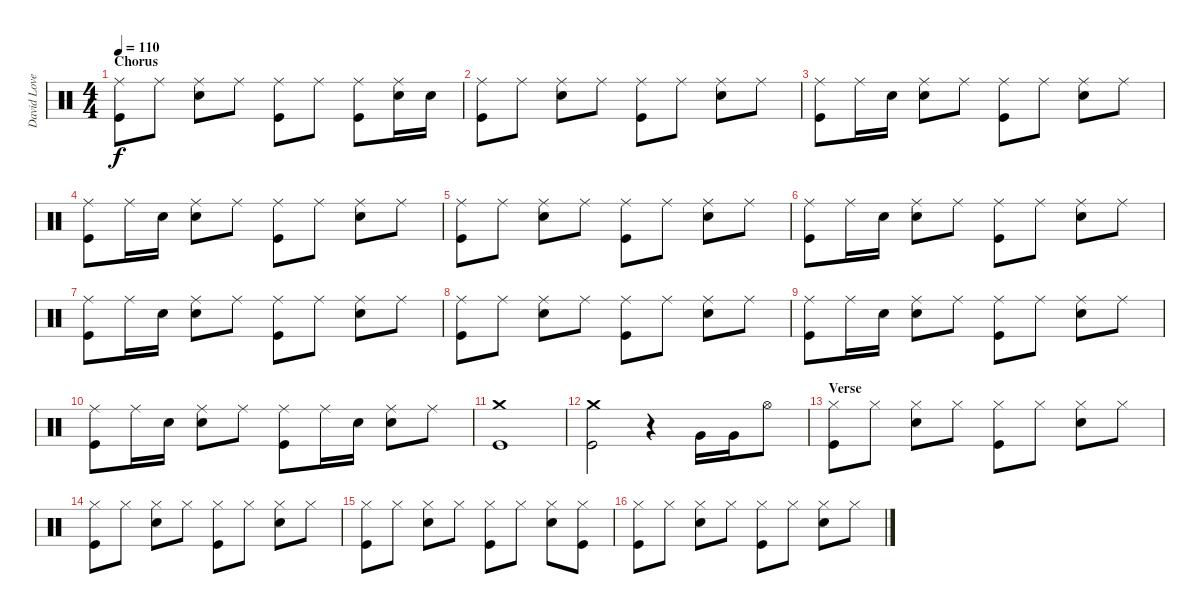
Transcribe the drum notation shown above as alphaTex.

\track ("David Lovering" "David Love") {instrument percussion}
\staff {score}
\articulation defaults
\ts (4 4)
\section ("" "Chorus")
\tempo 110
\clef neutral
\ks c
("Ride (middle)" "Kick (hit)").8{dy f} "Ride (middle)".8 ("Ride (middle)" "Snare (hit) 2").8 "Ride (middle)".8 ("Ride (middle)" "Kick (hit)").8 "Ride (middle)".8 ("Ride (middle)" "Kick (hit)").8 ("Ride (middle)" "Snare (hit) 2").16 "Snare (hit) 2".16 |
("Ride (middle)" "Kick (hit)").8 "Ride (middle)".8 ("Ride (middle)" "Snare (hit) 2").8 "Ride (middle)".8 ("Ride (middle)" "Kick (hit)").8 "Ride (middle)".8 ("Ride (middle)" "Snare (hit) 2").8 "Ride (middle)".8 |
("Ride (middle)" "Kick (hit)").8 "Ride (middle)".16 "Snare (hit) 2".16 ("Ride (middle)" "Snare (hit) 2").8 "Ride (middle)".8 ("Ride (middle)" "Kick (hit)").8 "Ride (middle)".8 ("Ride (middle)" "Snare (hit) 2").8 "Ride (middle)".8 |
("Ride (middle)" "Kick (hit)").8 "Ride (middle)".16 "Snare (hit) 2".16 ("Ride (middle)" "Snare (hit) 2").8 "Ride (middle)".8 ("Ride (middle)" "Kick (hit)").8 "Ride (middle)".8 ("Ride (middle)" "Snare (hit) 2").8 "Ride (middle)".8 |
("Ride (middle)" "Kick (hit)").8 "Ride (middle)".8 ("Ride (middle)" "Snare (hit) 2").8 "Ride (middle)".8 ("Ride (middle)" "Kick (hit)").8 "Ride (middle)".8 ("Ride (middle)" "Snare (hit) 2").8 "Ride (middle)".8 |
("Ride (middle)" "Kick (hit)").8 "Ride (middle)".16 "Snare (hit) 2".16 ("Ride (middle)" "Snare (hit) 2").8 "Ride (middle)".8 ("Ride (middle)" "Kick (hit)").8 "Ride (middle)".8 ("Ride (middle)" "Snare (hit) 2").8 "Ride (middle)".8 |
("Ride (middle)" "Kick (hit)").8 "Ride (middle)".16 "Snare (hit) 2".16 ("Ride (middle)" "Snare (hit) 2").8 "Ride (middle)".8 ("Ride (middle)" "Kick (hit)").8 "Ride (middle)".8 ("Ride (middle)" "Snare (hit) 2").8 "Ride (middle)".8 |
("Ride (middle)" "Kick (hit)").8 "Ride (middle)".8 ("Ride (middle)" "Snare (hit) 2").8 "Ride (middle)".8 ("Ride (middle)" "Kick (hit)").8 "Ride (middle)".8 ("Ride (middle)" "Snare (hit) 2").8 "Ride (middle)".8 |
("Ride (middle)" "Kick (hit)").8 "Ride (middle)".16 "Snare (hit) 2".16 ("Ride (middle)" "Snare (hit) 2").8 "Ride (middle)".8 ("Ride (middle)" "Kick (hit)").8 "Ride (middle)".8 ("Ride (middle)" "Snare (hit) 2").8 "Ride (middle)".8 |
("Ride (middle)" "Kick (hit)").8 "Ride (middle)".16 "Snare (hit) 2".16 ("Ride (middle)" "Snare (hit) 2").8 "Ride (middle)".8 ("Ride (middle)" "Kick (hit)").8 "Ride (middle)".16 "Snare (hit) 2".16 ("Ride (middle)" "Snare (hit) 2").8 "Ride (middle)".8 |
("Crash medium (hit)" "Kick (hit)").1 |
("Crash medium (hit)" "Kick (hit)").2 r.4 "Very Low Tom (hit)".16 "Very Low Tom (hit)".16 "Hi-Hat (open)".8 |
\section ("" "Verse")
("Hi-Hat (closed)" "Kick (hit)").8 "Hi-Hat (closed)".8 ("Hi-Hat (closed)" "Snare (hit) 2").8 "Hi-Hat (closed)".8 ("Hi-Hat (closed)" "Kick (hit)").8 "Hi-Hat (closed)".8 ("Hi-Hat (closed)" "Snare (hit) 2").8 "Hi-Hat (closed)".8 |
("Hi-Hat (closed)" "Kick (hit)").8 "Hi-Hat (closed)".8 ("Hi-Hat (closed)" "Snare (hit) 2").8 "Hi-Hat (closed)".8 ("Hi-Hat (closed)" "Kick (hit)").8 "Hi-Hat (closed)".8 ("Hi-Hat (closed)" "Snare (hit) 2").8 "Hi-Hat (closed)".8 |
("Hi-Hat (closed)" "Kick (hit)").8 "Hi-Hat (closed)".8 ("Hi-Hat (closed)" "Snare (hit) 2").8 "Hi-Hat (closed)".8 ("Hi-Hat (closed)" "Kick (hit)").8 "Hi-Hat (closed)".8 ("Hi-Hat (closed)" "Snare (hit) 2").8 ("Hi-Hat (closed)" "Kick (hit)").8 |
("Hi-Hat (closed)" "Kick (hit)").8 "Hi-Hat (closed)".8 ("Hi-Hat (closed)" "Snare (hit) 2").8 "Hi-Hat (closed)".8 ("Hi-Hat (closed)" "Kick (hit)").8 "Hi-Hat (closed)".8 ("Hi-Hat (closed)" "Snare (hit) 2").8 "Hi-Hat (closed)".8
